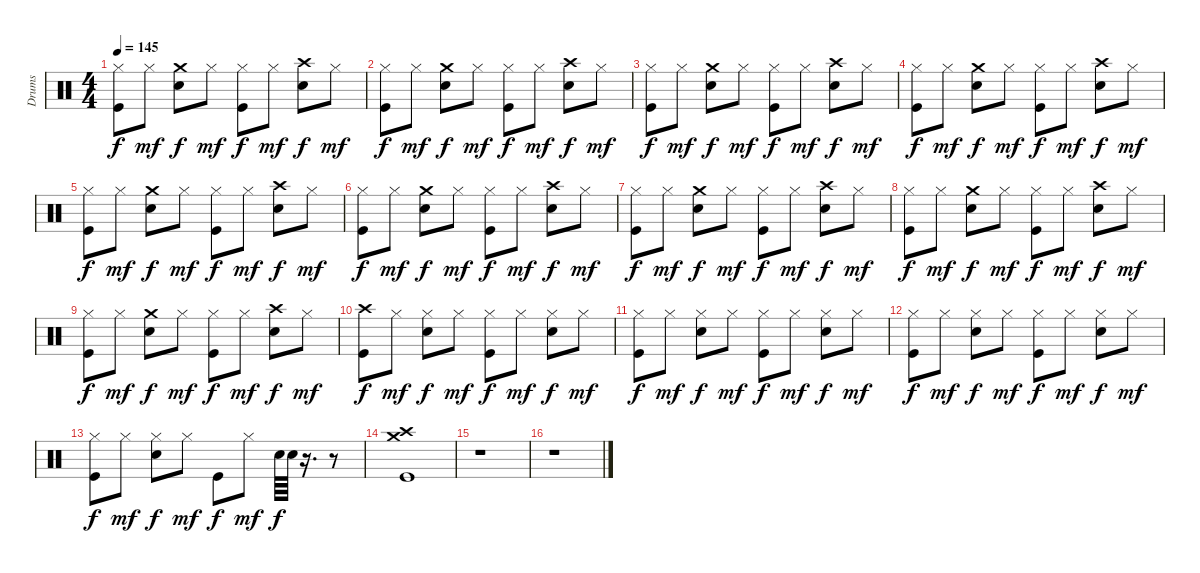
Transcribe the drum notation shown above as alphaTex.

\track ("Drums" "Drums") {instrument percussion}
\staff {score}
\articulation defaults
\ts (4 4)
\tempo 145
\clef neutral
\ks c
("Hi-Hat (closed)" "Kick (hit)").8{dy f} "Hi-Hat (closed)".8{dy mf} ("Snare (hit) 2" "Crash medium (hit)").8{dy f} "Hi-Hat (closed)".8{dy mf} ("Hi-Hat (closed)" "Kick (hit)").8{dy f} "Hi-Hat (closed)".8{dy mf} ("Snare (hit) 2" "Crash high (hit)").8{dy f} "Hi-Hat (closed)".8{dy mf} |
("Hi-Hat (closed)" "Kick (hit)").8{dy f} "Hi-Hat (closed)".8{dy mf} ("Snare (hit) 2" "Crash medium (hit)").8{dy f} "Hi-Hat (closed)".8{dy mf} ("Hi-Hat (closed)" "Kick (hit)").8{dy f} "Hi-Hat (closed)".8{dy mf} ("Snare (hit) 2" "Crash high (hit)").8{dy f} "Hi-Hat (closed)".8{dy mf} |
("Hi-Hat (closed)" "Kick (hit)").8{dy f} "Hi-Hat (closed)".8{dy mf} ("Snare (hit) 2" "Crash medium (hit)").8{dy f} "Hi-Hat (closed)".8{dy mf} ("Hi-Hat (closed)" "Kick (hit)").8{dy f} "Hi-Hat (closed)".8{dy mf} ("Snare (hit) 2" "Crash high (hit)").8{dy f} "Hi-Hat (closed)".8{dy mf} |
("Hi-Hat (closed)" "Kick (hit)").8{dy f} "Hi-Hat (closed)".8{dy mf} ("Snare (hit) 2" "Crash medium (hit)").8{dy f} "Hi-Hat (closed)".8{dy mf} ("Hi-Hat (closed)" "Kick (hit)").8{dy f} "Hi-Hat (closed)".8{dy mf} ("Snare (hit) 2" "Crash high (hit)").8{dy f} "Hi-Hat (closed)".8{dy mf} |
("Hi-Hat (closed)" "Kick (hit)").8{dy f} "Hi-Hat (closed)".8{dy mf} ("Snare (hit) 2" "Crash medium (hit)").8{dy f} "Hi-Hat (closed)".8{dy mf} ("Hi-Hat (closed)" "Kick (hit)").8{dy f} "Hi-Hat (closed)".8{dy mf} ("Snare (hit) 2" "Crash high (hit)").8{dy f} "Hi-Hat (closed)".8{dy mf} |
("Hi-Hat (closed)" "Kick (hit)").8{dy f} "Hi-Hat (closed)".8{dy mf} ("Snare (hit) 2" "Crash medium (hit)").8{dy f} "Hi-Hat (closed)".8{dy mf} ("Hi-Hat (closed)" "Kick (hit)").8{dy f} "Hi-Hat (closed)".8{dy mf} ("Snare (hit) 2" "Crash high (hit)").8{dy f} "Hi-Hat (closed)".8{dy mf} |
("Hi-Hat (closed)" "Kick (hit)").8{dy f} "Hi-Hat (closed)".8{dy mf} ("Snare (hit) 2" "Crash medium (hit)").8{dy f} "Hi-Hat (closed)".8{dy mf} ("Hi-Hat (closed)" "Kick (hit)").8{dy f} "Hi-Hat (closed)".8{dy mf} ("Snare (hit) 2" "Crash high (hit)").8{dy f} "Hi-Hat (closed)".8{dy mf} |
("Hi-Hat (closed)" "Kick (hit)").8{dy f} "Hi-Hat (closed)".8{dy mf} ("Snare (hit) 2" "Crash medium (hit)").8{dy f} "Hi-Hat (closed)".8{dy mf} ("Hi-Hat (closed)" "Kick (hit)").8{dy f} "Hi-Hat (closed)".8{dy mf} ("Snare (hit) 2" "Crash high (hit)").8{dy f} "Hi-Hat (closed)".8{dy mf} |
("Hi-Hat (closed)" "Kick (hit)").8{dy f} "Hi-Hat (closed)".8{dy mf} ("Snare (hit) 2" "Crash medium (hit)").8{dy f} "Hi-Hat (closed)".8{dy mf} ("Hi-Hat (closed)" "Kick (hit)").8{dy f} "Hi-Hat (closed)".8{dy mf} ("Snare (hit) 2" "Crash high (hit)").8{dy f} "Hi-Hat (closed)".8{dy mf} |
("Crash high (hit)" "Kick (hit)").8{dy f} "Hi-Hat (closed)".8{dy mf} ("Hi-Hat (closed)" "Snare (hit) 2").8{dy f} "Hi-Hat (closed)".8{dy mf} ("Hi-Hat (closed)" "Kick (hit)").8{dy f} "Hi-Hat (closed)".8{dy mf} ("Hi-Hat (closed)" "Snare (hit) 2").8{dy f} "Hi-Hat (closed)".8{dy mf} |
("Hi-Hat (closed)" "Kick (hit)").8{dy f} "Hi-Hat (closed)".8{dy mf} ("Hi-Hat (closed)" "Snare (hit) 2").8{dy f} "Hi-Hat (closed)".8{dy mf} ("Hi-Hat (closed)" "Kick (hit)").8{dy f} "Hi-Hat (closed)".8{dy mf} ("Hi-Hat (closed)" "Snare (hit) 2").8{dy f} "Hi-Hat (closed)".8{dy mf} |
("Hi-Hat (closed)" "Kick (hit)").8{dy f} "Hi-Hat (closed)".8{dy mf} ("Hi-Hat (closed)" "Snare (hit) 2").8{dy f} "Hi-Hat (closed)".8{dy mf} ("Hi-Hat (closed)" "Kick (hit)").8{dy f} "Hi-Hat (closed)".8{dy mf} ("Hi-Hat (closed)" "Snare (hit) 2").8{dy f} "Hi-Hat (closed)".8{dy mf} |
("Hi-Hat (closed)" "Kick (hit)").8{dy f} "Hi-Hat (closed)".8{dy mf} ("Hi-Hat (closed)" "Snare (hit) 2").8{dy f} "Hi-Hat (closed)".8{dy mf} "Kick (hit)".8{dy f} "Hi-Hat (closed)".8{dy mf} "Snare (hit) 2".64{dy f} "Snare (hit) 2".64 r.16{d} r.8 |
("Kick (hit)" "Crash high (hit)" "Crash medium (hit)").1 |
r.1 |
r.1
